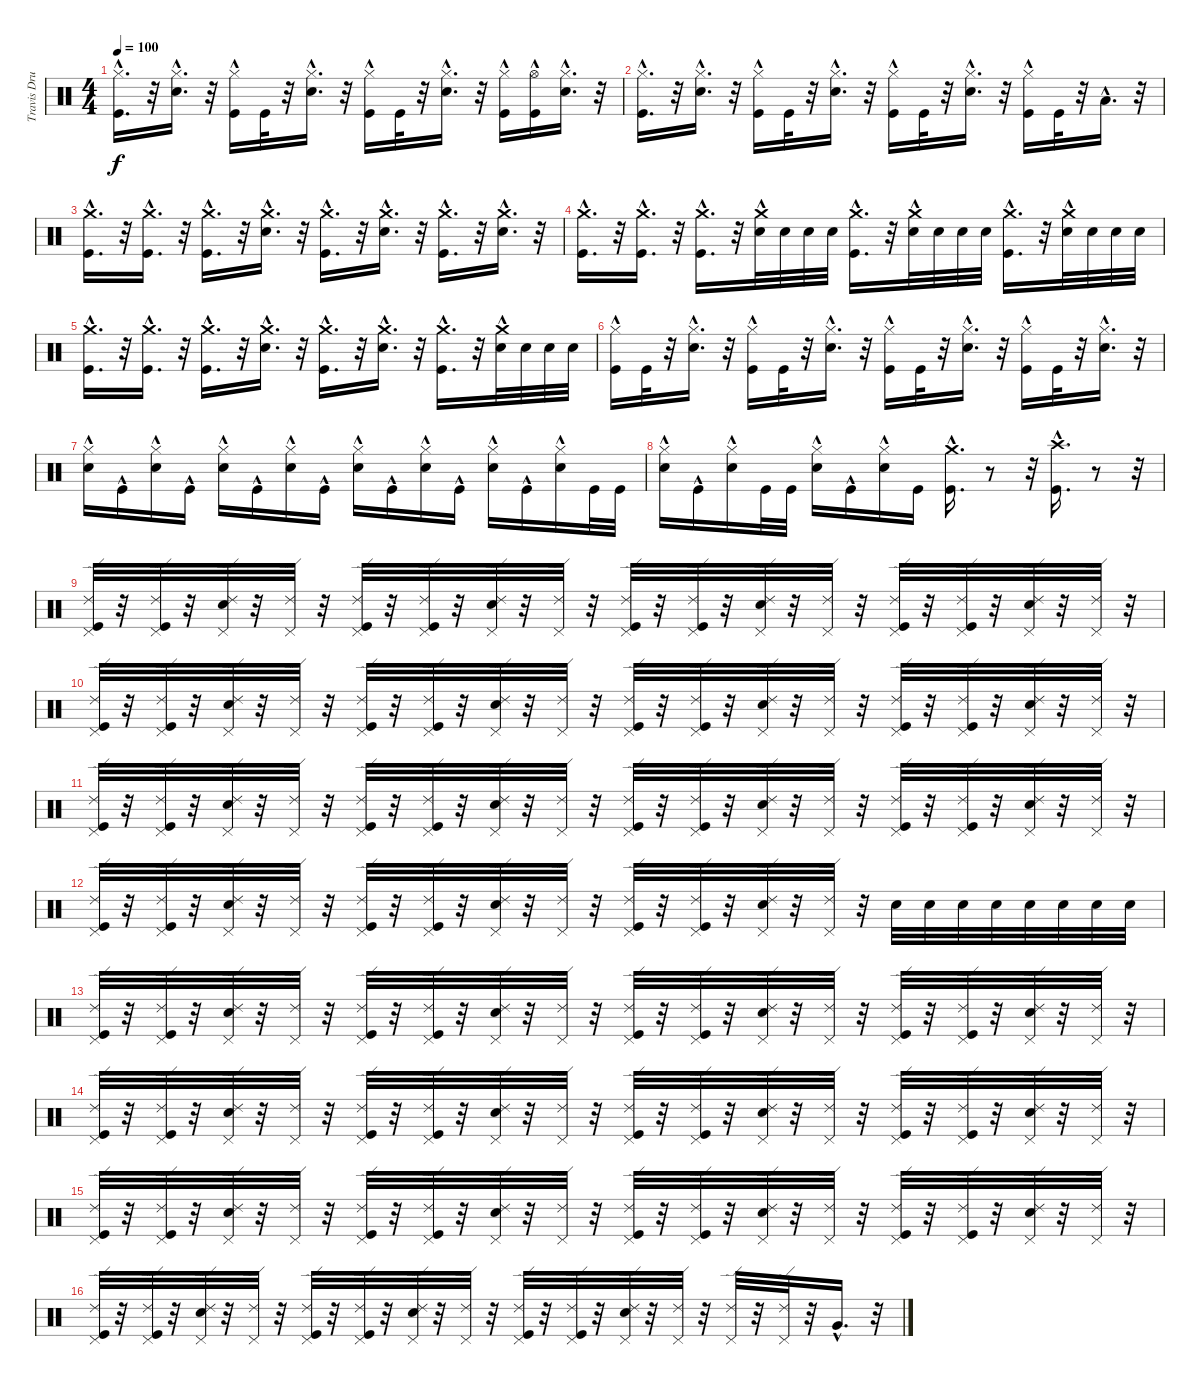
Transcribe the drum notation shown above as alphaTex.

\track ("Travis Drums" "Travis Dru") {instrument percussion}
\staff {score}
\articulation defaults
\ts (4 4)
\tempo 100
\clef neutral
\ks c
("Hi-Hat (closed)"{hac} "Kick (hit)"{hac}).16{d dy f} r.32 ("Hi-Hat (closed)"{hac} "Snare (hit) 2"{hac}).16{d} r.32 ("Kick (hit)" "Hi-Hat (closed)"{hac}).16 "Kick (hit)".32 r.32 ("Snare (hit) 2"{hac} "Hi-Hat (closed)"{hac}).16{d} r.32 ("Kick (hit)" "Hi-Hat (closed)"{hac}).16 "Kick (hit)".32 r.32 ("Snare (hit) 2"{hac} "Hi-Hat (closed)"{hac}).16{d} r.32 ("Kick (hit)" "Hi-Hat (closed)"{hac}).16 ("Hi-Hat (open)"{hac} "Kick (hit)").16 ("Hi-Hat (closed)"{hac} "Snare (hit) 2"{hac}).16{d} r.32 |
("Kick (hit)"{hac} "Hi-Hat (closed)"{hac}).16{d} r.32 ("Hi-Hat (closed)"{hac} "Snare (hit) 2"{hac}).16{d} r.32 ("Kick (hit)" "Hi-Hat (closed)"{hac}).16 "Kick (hit)".32 r.32 ("Snare (hit) 2"{hac} "Hi-Hat (closed)"{hac}).16{d} r.32 ("Kick (hit)" "Hi-Hat (closed)"{hac}).16 "Kick (hit)".32 r.32 ("Snare (hit) 2"{hac} "Hi-Hat (closed)"{hac}).16{d} r.32 ("Kick (hit)" "Hi-Hat (closed)"{hac}).16 "Kick (hit)".32 r.32 "Low Tom (hit)"{hac}.16{d} r.32 |
("Kick (hit)"{hac} "Crash medium (hit)"{hac}).16{d} r.32 ("Kick (hit)"{hac} "Crash medium (hit)"{hac}).16{d} r.32 ("Kick (hit)"{hac} "Crash medium (hit)"{hac}).16{d} r.32 ("Snare (hit) 2"{hac} "Crash medium (hit)"{hac}).16{d} r.32 ("Kick (hit)"{hac} "Crash medium (hit)"{hac}).16{d} r.32 ("Snare (hit) 2"{hac} "Crash medium (hit)"{hac}).16{d} r.32 ("Kick (hit)"{hac} "Crash medium (hit)"{hac}).16{d} r.32 ("Snare (hit) 2"{hac} "Crash medium (hit)"{hac}).16{d} r.32 |
("Kick (hit)"{hac} "Crash medium (hit)"{hac}).16{d} r.32 ("Kick (hit)"{hac} "Crash medium (hit)"{hac}).16{d} r.32 ("Kick (hit)"{hac} "Crash medium (hit)"{hac}).16{d} r.32 ("Snare (hit) 2" "Crash medium (hit)"{hac}).32 "Snare (hit) 2".32 "Snare (hit) 2".32 "Snare (hit) 2".32 ("Kick (hit)"{hac} "Crash medium (hit)"{hac}).16{d} r.32 ("Snare (hit) 2" "Crash medium (hit)"{hac}).32 "Snare (hit) 2".32 "Snare (hit) 2".32 "Snare (hit) 2".32 ("Kick (hit)"{hac} "Crash medium (hit)"{hac}).16{d} r.32 ("Snare (hit) 2" "Crash medium (hit)"{hac}).32 "Snare (hit) 2".32 "Snare (hit) 2".32 "Snare (hit) 2".32 |
("Kick (hit)"{hac} "Crash medium (hit)"{hac}).16{d} r.32 ("Kick (hit)"{hac} "Crash medium (hit)"{hac}).16{d} r.32 ("Kick (hit)"{hac} "Crash medium (hit)"{hac}).16{d} r.32 ("Snare (hit) 2"{hac} "Crash medium (hit)"{hac}).16{d} r.32 ("Kick (hit)"{hac} "Crash medium (hit)"{hac}).16{d} r.32 ("Snare (hit) 2"{hac} "Crash medium (hit)"{hac}).16{d} r.32 ("Kick (hit)"{hac} "Crash medium (hit)"{hac}).16{d} r.32 ("Snare (hit) 2" "Crash medium (hit)"{hac}).32 "Snare (hit) 2".32 "Snare (hit) 2".32 "Snare (hit) 2".32 |
("Kick (hit)" "Hi-Hat (closed)"{hac}).16 "Kick (hit)".32 r.32 ("Snare (hit) 2"{hac} "Hi-Hat (closed)"{hac}).16{d} r.32 ("Kick (hit)" "Hi-Hat (closed)"{hac}).16 "Kick (hit)".32 r.32 ("Snare (hit) 2"{hac} "Hi-Hat (closed)"{hac}).16{d} r.32 ("Kick (hit)" "Hi-Hat (closed)"{hac}).16 "Kick (hit)".32 r.32 ("Snare (hit) 2"{hac} "Hi-Hat (closed)"{hac}).16{d} r.32 ("Kick (hit)" "Hi-Hat (closed)"{hac}).16 "Kick (hit)".32 r.32 ("Snare (hit) 2"{hac} "Hi-Hat (closed)"{hac}).16{d} r.32 |
("Snare (hit) 2"{hac} "Hi-Hat (closed)"{hac}).16 "Kick (hit)"{hac}.16 ("Snare (hit) 2"{hac} "Hi-Hat (closed)"{hac}).16 "Kick (hit)"{hac}.16 ("Snare (hit) 2"{hac} "Hi-Hat (closed)"{hac}).16 "Kick (hit)"{hac}.16 ("Snare (hit) 2"{hac} "Hi-Hat (closed)"{hac}).16 "Kick (hit)"{hac}.16 ("Snare (hit) 2"{hac} "Hi-Hat (closed)"{hac}).16 "Kick (hit)"{hac}.16 ("Snare (hit) 2"{hac} "Hi-Hat (closed)"{hac}).16 "Kick (hit)"{hac}.16 ("Hi-Hat (closed)"{hac} "Snare (hit) 2"{hac}).16 "Kick (hit)"{hac}.16 ("Hi-Hat (closed)"{hac} "Snare (hit) 2"{hac}).16 "Kick (hit)".32 "Kick (hit)".32 |
("Snare (hit) 2"{hac} "Hi-Hat (closed)"{hac}).16 "Kick (hit)"{hac}.16 ("Snare (hit) 2"{hac} "Hi-Hat (closed)"{hac}).16 "Kick (hit)".32 "Kick (hit)".32 ("Snare (hit) 2"{hac} "Hi-Hat (closed)"{hac}).16 "Kick (hit)"{hac}.16 ("Snare (hit) 2"{hac} "Hi-Hat (closed)"{hac}).16 "Kick (hit)".16 ("Kick (hit)"{hac} "Crash medium (hit)"{hac}).16{d} r.8 r.32 ("Crash high (hit)"{hac} "Kick (hit)"{hac}).16{d} r.8 r.32 |
("Pedal Hi-Hat (hit)" "Ride (edge) 2" "Kick (hit)").32 r.32 ("Pedal Hi-Hat (hit)" "Ride (edge) 2" "Kick (hit)").32 r.32 ("Pedal Hi-Hat (hit)" "Ride (edge) 2" "Snare (hit) 2").32 r.32 ("Pedal Hi-Hat (hit)" "Ride (edge) 2").32 r.32 ("Kick (hit)" "Pedal Hi-Hat (hit)" "Ride (edge) 2").32 r.32 ("Kick (hit)" "Pedal Hi-Hat (hit)" "Ride (edge) 2").32 r.32 ("Snare (hit) 2" "Pedal Hi-Hat (hit)" "Ride (edge) 2").32 r.32 ("Pedal Hi-Hat (hit)" "Ride (edge) 2").32 r.32 ("Kick (hit)" "Pedal Hi-Hat (hit)" "Ride (edge) 2").32 r.32 ("Kick (hit)" "Pedal Hi-Hat (hit)" "Ride (edge) 2").32 r.32 ("Snare (hit) 2" "Pedal Hi-Hat (hit)" "Ride (edge) 2").32 r.32 ("Pedal Hi-Hat (hit)" "Ride (edge) 2").32 r.32 ("Kick (hit)" "Pedal Hi-Hat (hit)" "Ride (edge) 2").32 r.32 ("Kick (hit)" "Pedal Hi-Hat (hit)" "Ride (edge) 2").32 r.32 ("Snare (hit) 2" "Pedal Hi-Hat (hit)" "Ride (edge) 2").32 r.32 ("Pedal Hi-Hat (hit)" "Ride (edge) 2").32 r.32 |
("Pedal Hi-Hat (hit)" "Ride (edge) 2" "Kick (hit)").32 r.32 ("Pedal Hi-Hat (hit)" "Ride (edge) 2" "Kick (hit)").32 r.32 ("Pedal Hi-Hat (hit)" "Ride (edge) 2" "Snare (hit) 2").32 r.32 ("Pedal Hi-Hat (hit)" "Ride (edge) 2").32 r.32 ("Kick (hit)" "Pedal Hi-Hat (hit)" "Ride (edge) 2").32 r.32 ("Kick (hit)" "Pedal Hi-Hat (hit)" "Ride (edge) 2").32 r.32 ("Snare (hit) 2" "Pedal Hi-Hat (hit)" "Ride (edge) 2").32 r.32 ("Pedal Hi-Hat (hit)" "Ride (edge) 2").32 r.32 ("Kick (hit)" "Pedal Hi-Hat (hit)" "Ride (edge) 2").32 r.32 ("Kick (hit)" "Pedal Hi-Hat (hit)" "Ride (edge) 2").32 r.32 ("Snare (hit) 2" "Pedal Hi-Hat (hit)" "Ride (edge) 2").32 r.32 ("Pedal Hi-Hat (hit)" "Ride (edge) 2").32 r.32 ("Kick (hit)" "Pedal Hi-Hat (hit)" "Ride (edge) 2").32 r.32 ("Kick (hit)" "Pedal Hi-Hat (hit)" "Ride (edge) 2").32 r.32 ("Snare (hit) 2" "Pedal Hi-Hat (hit)" "Ride (edge) 2").32 r.32 ("Pedal Hi-Hat (hit)" "Ride (edge) 2").32 r.32 |
("Pedal Hi-Hat (hit)" "Ride (edge) 2" "Kick (hit)").32 r.32 ("Pedal Hi-Hat (hit)" "Ride (edge) 2" "Kick (hit)").32 r.32 ("Pedal Hi-Hat (hit)" "Ride (edge) 2" "Snare (hit) 2").32 r.32 ("Pedal Hi-Hat (hit)" "Ride (edge) 2").32 r.32 ("Kick (hit)" "Pedal Hi-Hat (hit)" "Ride (edge) 2").32 r.32 ("Kick (hit)" "Pedal Hi-Hat (hit)" "Ride (edge) 2").32 r.32 ("Snare (hit) 2" "Pedal Hi-Hat (hit)" "Ride (edge) 2").32 r.32 ("Pedal Hi-Hat (hit)" "Ride (edge) 2").32 r.32 ("Kick (hit)" "Pedal Hi-Hat (hit)" "Ride (edge) 2").32 r.32 ("Kick (hit)" "Pedal Hi-Hat (hit)" "Ride (edge) 2").32 r.32 ("Snare (hit) 2" "Pedal Hi-Hat (hit)" "Ride (edge) 2").32 r.32 ("Pedal Hi-Hat (hit)" "Ride (edge) 2").32 r.32 ("Kick (hit)" "Pedal Hi-Hat (hit)" "Ride (edge) 2").32 r.32 ("Kick (hit)" "Pedal Hi-Hat (hit)" "Ride (edge) 2").32 r.32 ("Snare (hit) 2" "Pedal Hi-Hat (hit)" "Ride (edge) 2").32 r.32 ("Pedal Hi-Hat (hit)" "Ride (edge) 2").32 r.32 |
("Pedal Hi-Hat (hit)" "Ride (edge) 2" "Kick (hit)").32 r.32 ("Pedal Hi-Hat (hit)" "Ride (edge) 2" "Kick (hit)").32 r.32 ("Pedal Hi-Hat (hit)" "Ride (edge) 2" "Snare (hit) 2").32 r.32 ("Pedal Hi-Hat (hit)" "Ride (edge) 2").32 r.32 ("Kick (hit)" "Pedal Hi-Hat (hit)" "Ride (edge) 2").32 r.32 ("Kick (hit)" "Pedal Hi-Hat (hit)" "Ride (edge) 2").32 r.32 ("Snare (hit) 2" "Pedal Hi-Hat (hit)" "Ride (edge) 2").32 r.32 ("Pedal Hi-Hat (hit)" "Ride (edge) 2").32 r.32 ("Kick (hit)" "Pedal Hi-Hat (hit)" "Ride (edge) 2").32 r.32 ("Kick (hit)" "Pedal Hi-Hat (hit)" "Ride (edge) 2").32 r.32 ("Snare (hit) 2" "Pedal Hi-Hat (hit)" "Ride (edge) 2").32 r.32 ("Pedal Hi-Hat (hit)" "Ride (edge) 2").32 r.32 "Snare (hit) 2".32 "Snare (hit) 2".32 "Snare (hit) 2".32 "Snare (hit) 2".32 "Snare (hit) 2".32 "Snare (hit) 2".32 "Snare (hit) 2".32 "Snare (hit) 2".32 |
("Pedal Hi-Hat (hit)" "Ride (edge) 2" "Kick (hit)").32 r.32 ("Pedal Hi-Hat (hit)" "Ride (edge) 2" "Kick (hit)").32 r.32 ("Pedal Hi-Hat (hit)" "Ride (edge) 2" "Snare (hit) 2").32 r.32 ("Pedal Hi-Hat (hit)" "Ride (edge) 2").32 r.32 ("Kick (hit)" "Pedal Hi-Hat (hit)" "Ride (edge) 2").32 r.32 ("Kick (hit)" "Pedal Hi-Hat (hit)" "Ride (edge) 2").32 r.32 ("Snare (hit) 2" "Pedal Hi-Hat (hit)" "Ride (edge) 2").32 r.32 ("Pedal Hi-Hat (hit)" "Ride (edge) 2").32 r.32 ("Kick (hit)" "Pedal Hi-Hat (hit)" "Ride (edge) 2").32 r.32 ("Kick (hit)" "Pedal Hi-Hat (hit)" "Ride (edge) 2").32 r.32 ("Snare (hit) 2" "Pedal Hi-Hat (hit)" "Ride (edge) 2").32 r.32 ("Pedal Hi-Hat (hit)" "Ride (edge) 2").32 r.32 ("Kick (hit)" "Pedal Hi-Hat (hit)" "Ride (edge) 2").32 r.32 ("Kick (hit)" "Pedal Hi-Hat (hit)" "Ride (edge) 2").32 r.32 ("Snare (hit) 2" "Pedal Hi-Hat (hit)" "Ride (edge) 2").32 r.32 ("Pedal Hi-Hat (hit)" "Ride (edge) 2").32 r.32 |
("Pedal Hi-Hat (hit)" "Ride (edge) 2" "Kick (hit)").32 r.32 ("Pedal Hi-Hat (hit)" "Ride (edge) 2" "Kick (hit)").32 r.32 ("Pedal Hi-Hat (hit)" "Ride (edge) 2" "Snare (hit) 2").32 r.32 ("Pedal Hi-Hat (hit)" "Ride (edge) 2").32 r.32 ("Kick (hit)" "Pedal Hi-Hat (hit)" "Ride (edge) 2").32 r.32 ("Kick (hit)" "Pedal Hi-Hat (hit)" "Ride (edge) 2").32 r.32 ("Snare (hit) 2" "Pedal Hi-Hat (hit)" "Ride (edge) 2").32 r.32 ("Pedal Hi-Hat (hit)" "Ride (edge) 2").32 r.32 ("Kick (hit)" "Pedal Hi-Hat (hit)" "Ride (edge) 2").32 r.32 ("Kick (hit)" "Pedal Hi-Hat (hit)" "Ride (edge) 2").32 r.32 ("Snare (hit) 2" "Pedal Hi-Hat (hit)" "Ride (edge) 2").32 r.32 ("Pedal Hi-Hat (hit)" "Ride (edge) 2").32 r.32 ("Kick (hit)" "Pedal Hi-Hat (hit)" "Ride (edge) 2").32 r.32 ("Kick (hit)" "Pedal Hi-Hat (hit)" "Ride (edge) 2").32 r.32 ("Snare (hit) 2" "Pedal Hi-Hat (hit)" "Ride (edge) 2").32 r.32 ("Pedal Hi-Hat (hit)" "Ride (edge) 2").32 r.32 |
("Pedal Hi-Hat (hit)" "Ride (edge) 2" "Kick (hit)").32 r.32 ("Pedal Hi-Hat (hit)" "Ride (edge) 2" "Kick (hit)").32 r.32 ("Pedal Hi-Hat (hit)" "Ride (edge) 2" "Snare (hit) 2").32 r.32 ("Pedal Hi-Hat (hit)" "Ride (edge) 2").32 r.32 ("Kick (hit)" "Pedal Hi-Hat (hit)" "Ride (edge) 2").32 r.32 ("Kick (hit)" "Pedal Hi-Hat (hit)" "Ride (edge) 2").32 r.32 ("Snare (hit) 2" "Pedal Hi-Hat (hit)" "Ride (edge) 2").32 r.32 ("Pedal Hi-Hat (hit)" "Ride (edge) 2").32 r.32 ("Kick (hit)" "Pedal Hi-Hat (hit)" "Ride (edge) 2").32 r.32 ("Kick (hit)" "Pedal Hi-Hat (hit)" "Ride (edge) 2").32 r.32 ("Snare (hit) 2" "Pedal Hi-Hat (hit)" "Ride (edge) 2").32 r.32 ("Pedal Hi-Hat (hit)" "Ride (edge) 2").32 r.32 ("Kick (hit)" "Pedal Hi-Hat (hit)" "Ride (edge) 2").32 r.32 ("Kick (hit)" "Pedal Hi-Hat (hit)" "Ride (edge) 2").32 r.32 ("Snare (hit) 2" "Pedal Hi-Hat (hit)" "Ride (edge) 2").32 r.32 ("Pedal Hi-Hat (hit)" "Ride (edge) 2").32 r.32 |
("Pedal Hi-Hat (hit)" "Ride (edge) 2" "Kick (hit)").32 r.32 ("Pedal Hi-Hat (hit)" "Ride (edge) 2" "Kick (hit)").32 r.32 ("Pedal Hi-Hat (hit)" "Ride (edge) 2" "Snare (hit) 2").32 r.32 ("Pedal Hi-Hat (hit)" "Ride (edge) 2").32 r.32 ("Kick (hit)" "Pedal Hi-Hat (hit)" "Ride (edge) 2").32 r.32 ("Kick (hit)" "Pedal Hi-Hat (hit)" "Ride (edge) 2").32 r.32 ("Snare (hit) 2" "Pedal Hi-Hat (hit)" "Ride (edge) 2").32 r.32 ("Pedal Hi-Hat (hit)" "Ride (edge) 2").32 r.32 ("Kick (hit)" "Pedal Hi-Hat (hit)" "Ride (edge) 2").32 r.32 ("Kick (hit)" "Pedal Hi-Hat (hit)" "Ride (edge) 2").32 r.32 ("Snare (hit) 2" "Pedal Hi-Hat (hit)" "Ride (edge) 2").32 r.32 ("Pedal Hi-Hat (hit)" "Ride (edge) 2").32 r.32 ("Pedal Hi-Hat (hit)" "Ride (edge) 2").32 r.32 ("Pedal Hi-Hat (hit)" "Ride (edge) 2").32 r.32 "Very Low Tom (hit)"{hac}.16{d} r.32
